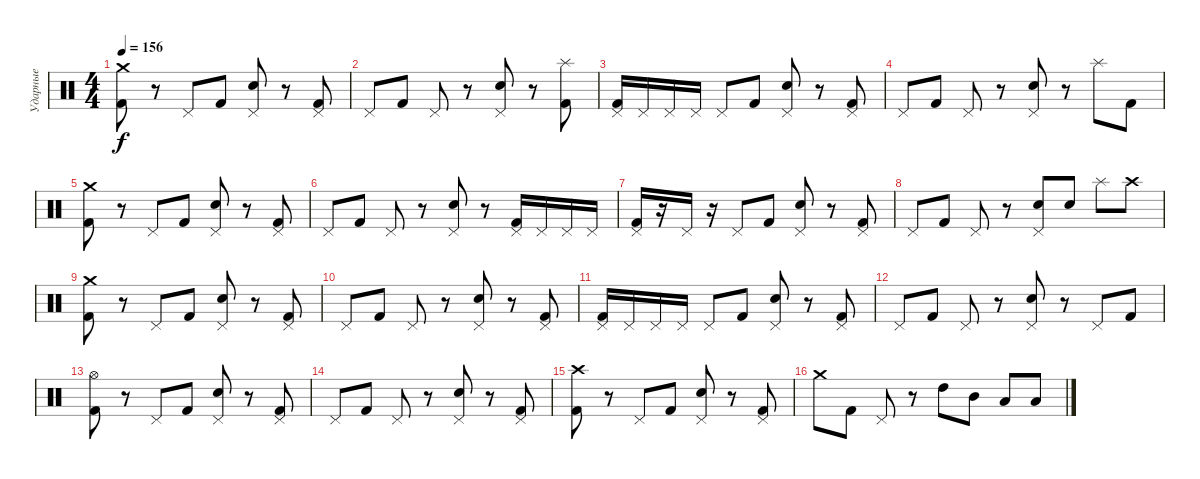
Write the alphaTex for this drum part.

\track ("Ударные" "Ударные") {instrument percussion}
\staff {score}
\articulation defaults
\ts (4 4)
\tempo 156
\clef neutral
\ks c
("Crash medium (hit)" "Kick (hit) 2").8{dy f} r.8 "Pedal Hi-Hat (hit)".8 "Kick (hit) 2".8 ("Pedal Hi-Hat (hit)" "Electric Snare (hit)").8 r.8 ("Pedal Hi-Hat (hit)" "Kick (hit) 2").8 |
"Pedal Hi-Hat (hit)".8 "Kick (hit) 2".8 "Pedal Hi-Hat (hit)".8 r.8 ("Pedal Hi-Hat (hit)" "Electric Snare (hit)").8 r.8 ("Splash (hit)" "Kick (hit) 2").8 |
("Pedal Hi-Hat (hit)" "Kick (hit) 2").16 "Pedal Hi-Hat (hit)".16 "Pedal Hi-Hat (hit)".16 "Pedal Hi-Hat (hit)".16 "Pedal Hi-Hat (hit)".8 "Kick (hit) 2".8 ("Pedal Hi-Hat (hit)" "Electric Snare (hit)").8 r.8 ("Pedal Hi-Hat (hit)" "Kick (hit) 2").8 |
"Pedal Hi-Hat (hit)".8 "Kick (hit) 2".8 "Pedal Hi-Hat (hit)".8 r.8 ("Pedal Hi-Hat (hit)" "Electric Snare (hit)").8 r.8 "Splash (hit)".8 "Kick (hit) 2".8 |
("Crash medium (hit)" "Kick (hit) 2").8 r.8 "Pedal Hi-Hat (hit)".8 "Kick (hit) 2".8 ("Pedal Hi-Hat (hit)" "Electric Snare (hit)").8 r.8 ("Pedal Hi-Hat (hit)" "Kick (hit) 2").8 |
"Pedal Hi-Hat (hit)".8 "Kick (hit) 2".8 "Pedal Hi-Hat (hit)".8 r.8 ("Pedal Hi-Hat (hit)" "Electric Snare (hit)").8 r.8 ("Pedal Hi-Hat (hit)" "Kick (hit) 2").16 "Pedal Hi-Hat (hit)".16 "Pedal Hi-Hat (hit)".16 "Pedal Hi-Hat (hit)".16 |
("Pedal Hi-Hat (hit)" "Kick (hit) 2").16 r.16 "Pedal Hi-Hat (hit)".16 r.16 "Pedal Hi-Hat (hit)".8 "Kick (hit) 2".8 ("Pedal Hi-Hat (hit)" "Electric Snare (hit)").8 r.8 ("Pedal Hi-Hat (hit)" "Kick (hit) 2").8 |
"Pedal Hi-Hat (hit)".8 "Kick (hit) 2".8 "Pedal Hi-Hat (hit)".8 r.8 ("Pedal Hi-Hat (hit)" "Electric Snare (hit)").8 "Electric Snare (hit)".8 "Splash (hit)".8 "Crash high (hit)".8 |
("Crash medium (hit)" "Kick (hit) 2").8 r.8 "Pedal Hi-Hat (hit)".8 "Kick (hit) 2".8 ("Pedal Hi-Hat (hit)" "Electric Snare (hit)").8 r.8 ("Pedal Hi-Hat (hit)" "Kick (hit) 2").8 |
"Pedal Hi-Hat (hit)".8 "Kick (hit) 2".8 "Pedal Hi-Hat (hit)".8 r.8 ("Pedal Hi-Hat (hit)" "Electric Snare (hit)").8 r.8 ("Pedal Hi-Hat (hit)" "Kick (hit) 2").8 |
("Pedal Hi-Hat (hit)" "Kick (hit) 2").16 "Pedal Hi-Hat (hit)".16 "Pedal Hi-Hat (hit)".16 "Pedal Hi-Hat (hit)".16 "Pedal Hi-Hat (hit)".8 "Kick (hit) 2".8 ("Pedal Hi-Hat (hit)" "Electric Snare (hit)").8 r.8 ("Pedal Hi-Hat (hit)" "Kick (hit) 2").8 |
"Pedal Hi-Hat (hit)".8 "Kick (hit) 2".8 "Pedal Hi-Hat (hit)".8 r.8 ("Pedal Hi-Hat (hit)" "Electric Snare (hit)").8 r.8 "Pedal Hi-Hat (hit)".8 "Kick (hit) 2".8 |
("Hi-Hat (open)" "Kick (hit) 2").8 r.8 "Pedal Hi-Hat (hit)".8 "Kick (hit) 2".8 ("Pedal Hi-Hat (hit)" "Electric Snare (hit)").8 r.8 ("Pedal Hi-Hat (hit)" "Kick (hit) 2").8 |
"Pedal Hi-Hat (hit)".8 "Kick (hit) 2".8 "Pedal Hi-Hat (hit)".8 r.8 ("Pedal Hi-Hat (hit)" "Electric Snare (hit)").8 r.8 ("Pedal Hi-Hat (hit)" "Kick (hit) 2").8 |
("Crash high (hit)" "Kick (hit) 2").8 r.8 "Pedal Hi-Hat (hit)".8 "Kick (hit) 2".8 ("Pedal Hi-Hat (hit)" "Electric Snare (hit)").8 r.8 ("Pedal Hi-Hat (hit)" "Kick (hit) 2").8 |
"Crash medium (hit)".8 "Kick (hit) 2".8 "Pedal Hi-Hat (hit)".8 r.8 "High Tom (hit)".8 "Mid Tom (hit)".8 "Low Tom (hit)".8 "Low Tom (hit)".8
